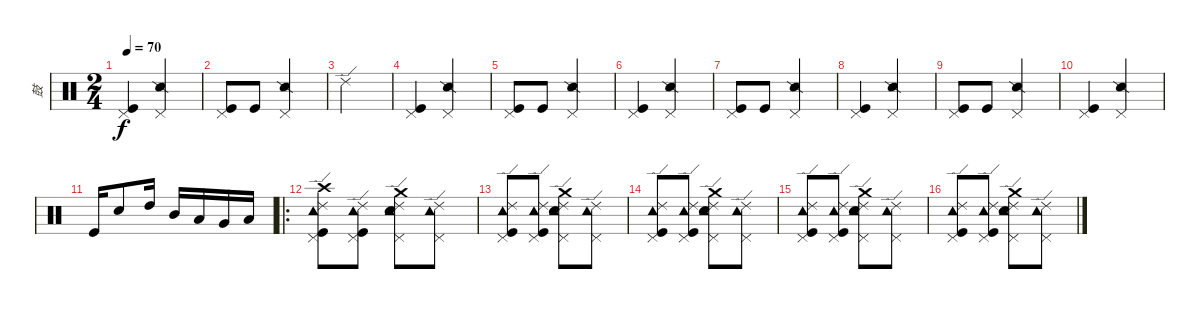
\track ("鼓" "鼓") {instrument percussion}
\staff {score}
\articulation defaults
\ts (2 4)
\tempo 70
\clef neutral
\ks c
("Pedal Hi-Hat (hit)" "Kick (hit)").4{dy f} ("Pedal Hi-Hat (hit)" "Snare (side stick) 2").4 |
("Pedal Hi-Hat (hit)" "Kick (hit)").8 "Kick (hit)".8 ("Pedal Hi-Hat (hit)" "Snare (side stick) 2").4 |
"Ride (edge) 2".2 |
("Pedal Hi-Hat (hit)" "Kick (hit)").4 ("Pedal Hi-Hat (hit)" "Snare (side stick) 2").4 |
("Pedal Hi-Hat (hit)" "Kick (hit)").8 "Kick (hit)".8 ("Pedal Hi-Hat (hit)" "Snare (side stick) 2").4 |
("Pedal Hi-Hat (hit)" "Kick (hit)").4 ("Pedal Hi-Hat (hit)" "Snare (side stick) 2").4 |
("Pedal Hi-Hat (hit)" "Kick (hit)").8 "Kick (hit)".8 ("Pedal Hi-Hat (hit)" "Snare (side stick) 2").4 |
("Pedal Hi-Hat (hit)" "Kick (hit)").4 ("Pedal Hi-Hat (hit)" "Snare (side stick) 2").4 |
("Pedal Hi-Hat (hit)" "Kick (hit)").8 "Kick (hit)".8 ("Pedal Hi-Hat (hit)" "Snare (side stick) 2").4 |
("Pedal Hi-Hat (hit)" "Kick (hit)").4 ("Pedal Hi-Hat (hit)" "Snare (side stick) 2").4 |
"Kick (hit)".16 "Electric Snare (hit)".8 "High Tom (hit)".16 "Mid Tom (hit)".16 "Low Tom (hit)".16 "Very Low Tom (hit)".16 "Low Floor Tom (hit)".16 |
\ro
("Pedal Hi-Hat (hit)" "Ride (edge) 2" "Tambourine (hit)" "Kick (hit)" "Crash high (hit)").8 ("Pedal Hi-Hat (hit)" "Ride (edge) 2" "Tambourine (hit)" "Kick (hit)").8 ("Pedal Hi-Hat (hit)" "Ride (edge) 2" "Tambourine (hit)" "Electric Snare (hit)" "Crash medium (hit)").8 ("Pedal Hi-Hat (hit)" "Ride (edge) 2" "Tambourine (hit)").8 |
("Pedal Hi-Hat (hit)" "Ride (edge) 2" "Tambourine (hit)" "Kick (hit)").8 ("Pedal Hi-Hat (hit)" "Ride (edge) 2" "Tambourine (hit)" "Kick (hit)").8 ("Pedal Hi-Hat (hit)" "Ride (edge) 2" "Tambourine (hit)" "Electric Snare (hit)" "Crash medium (hit)").8 ("Pedal Hi-Hat (hit)" "Ride (edge) 2" "Tambourine (hit)").8 |
("Pedal Hi-Hat (hit)" "Ride (edge) 2" "Tambourine (hit)" "Kick (hit)").8 ("Pedal Hi-Hat (hit)" "Ride (edge) 2" "Tambourine (hit)" "Kick (hit)").8 ("Pedal Hi-Hat (hit)" "Ride (edge) 2" "Tambourine (hit)" "Electric Snare (hit)" "Crash medium (hit)").8 ("Pedal Hi-Hat (hit)" "Ride (edge) 2" "Tambourine (hit)").8 |
("Pedal Hi-Hat (hit)" "Ride (edge) 2" "Tambourine (hit)" "Kick (hit)").8 ("Pedal Hi-Hat (hit)" "Ride (edge) 2" "Tambourine (hit)" "Kick (hit)").8 ("Pedal Hi-Hat (hit)" "Ride (edge) 2" "Tambourine (hit)" "Electric Snare (hit)" "Crash medium (hit)").8 ("Pedal Hi-Hat (hit)" "Ride (edge) 2" "Tambourine (hit)").8 |
("Pedal Hi-Hat (hit)" "Ride (edge) 2" "Tambourine (hit)" "Kick (hit)").8 ("Pedal Hi-Hat (hit)" "Ride (edge) 2" "Tambourine (hit)" "Kick (hit)").8 ("Pedal Hi-Hat (hit)" "Ride (edge) 2" "Tambourine (hit)" "Electric Snare (hit)" "Crash medium (hit)").8 ("Pedal Hi-Hat (hit)" "Ride (edge) 2" "Tambourine (hit)").8
